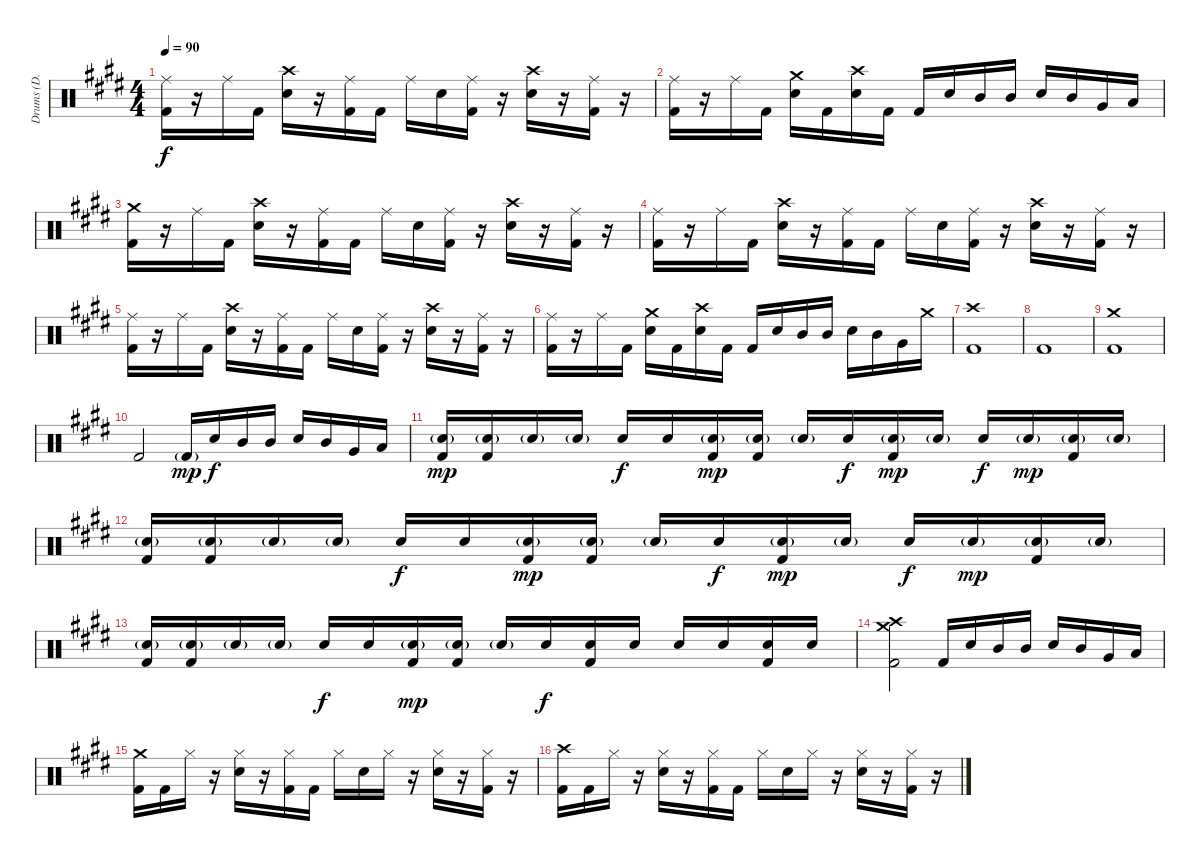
\track ("Drums (D. Adair)" "Drums (D. ") {instrument percussion}
\staff {score}
\articulation defaults
\ts (4 4)
\tempo 90
\clef neutral
\ks e
("Ride (middle)" "Kick (hit) 2").16{dy f} r.16 "Ride (middle)".16 "Kick (hit) 2".16 ("Crash high (hit)" "Snare (hit) 2").16 r.16 ("Ride (middle)" "Kick (hit) 2").16 "Kick (hit) 2".16 "Ride (middle)".16 "Snare (hit) 2".16 ("Ride (middle)" "Kick (hit) 2").16 r.16 ("Crash high (hit)" "Snare (hit) 2").16 r.16 ("Ride (middle)" "Kick (hit) 2").16 r.16 |
("Ride (middle)" "Kick (hit) 2").16 r.16 "Ride (middle)".16 "Kick (hit) 2".16 ("Crash medium (hit)" "Snare (hit) 2").16 "Kick (hit) 2".16 ("Crash high (hit)" "Snare (hit) 2").16 "Kick (hit) 2".16 "Kick (hit) 2".16 "Snare (hit) 2".16 "Mid Tom (hit)".16 "Mid Tom (hit)".16 "Snare (hit) 2".16 "Mid Tom (hit)".16 "Very Low Tom (hit)".16 "Low Floor Tom (hit)".16 |
("Crash medium (hit)" "Kick (hit) 2").16 r.16 "Ride (middle)".16 "Kick (hit) 2".16 ("Crash high (hit)" "Snare (hit) 2").16 r.16 ("Ride (middle)" "Kick (hit) 2").16 "Kick (hit) 2".16 "Ride (middle)".16 "Snare (hit) 2".16 ("Ride (middle)" "Kick (hit) 2").16 r.16 ("Crash high (hit)" "Snare (hit) 2").16 r.16 ("Ride (middle)" "Kick (hit) 2").16 r.16 |
("Ride (middle)" "Kick (hit) 2").16 r.16 "Ride (middle)".16 "Kick (hit) 2".16 ("Crash high (hit)" "Snare (hit) 2").16 r.16 ("Ride (middle)" "Kick (hit) 2").16 "Kick (hit) 2".16 "Ride (middle)".16 "Snare (hit) 2".16 ("Ride (middle)" "Kick (hit) 2").16 r.16 ("Crash high (hit)" "Snare (hit) 2").16 r.16 ("Ride (middle)" "Kick (hit) 2").16 r.16 |
("Ride (middle)" "Kick (hit) 2").16 r.16 "Ride (middle)".16 "Kick (hit) 2".16 ("Crash high (hit)" "Snare (hit) 2").16 r.16 ("Ride (middle)" "Kick (hit) 2").16 "Kick (hit) 2".16 "Ride (middle)".16 "Snare (hit) 2".16 ("Ride (middle)" "Kick (hit) 2").16 r.16 ("Crash high (hit)" "Snare (hit) 2").16 r.16 ("Ride (middle)" "Kick (hit) 2").16 r.16 |
("Ride (middle)" "Kick (hit) 2").16 r.16 "Ride (middle)".16 "Kick (hit) 2".16 ("Crash medium (hit)" "Snare (hit) 2").16 "Kick (hit) 2".16 ("Crash high (hit)" "Snare (hit) 2").16 "Kick (hit) 2".16 "Kick (hit) 2".16 "Snare (hit) 2".16 "Mid Tom (hit)".16 "Mid Tom (hit)".16 "Snare (hit) 2".16 "Mid Tom (hit)".16 "Very Low Tom (hit)".16 "Crash medium (hit)".16 |
("Crash high (hit)" "Kick (hit) 2").1 |
"Kick (hit) 2".1 |
("Crash medium (hit)" "Kick (hit) 2").1 |
"Kick (hit) 2".2 "Kick (hit) 2"{g}.16{dy mp} "Snare (hit) 2".16{dy f} "Mid Tom (hit)".16 "Mid Tom (hit)".16 "Snare (hit) 2".16 "Mid Tom (hit)".16 "Very Low Tom (hit)".16 "Low Floor Tom (hit)".16 |
("Snare (hit) 2"{g} "Kick (hit) 2").16{dy mp} ("Snare (hit) 2"{g} "Kick (hit) 2").16 "Snare (hit) 2"{g}.16 "Snare (hit) 2"{g}.16 "Snare (hit) 2".16{dy f} "Snare (hit) 2".16 ("Snare (hit) 2"{g} "Kick (hit) 2").16{dy mp} ("Snare (hit) 2"{g} "Kick (hit) 2").16 "Snare (hit) 2"{g}.16 "Snare (hit) 2".16{dy f} ("Snare (hit) 2"{g} "Kick (hit) 2").16{dy mp} "Snare (hit) 2"{g}.16 "Snare (hit) 2".16{dy f} "Snare (hit) 2"{g}.16{dy mp} ("Snare (hit) 2"{g} "Kick (hit) 2").16 "Snare (hit) 2"{g}.16 |
("Snare (hit) 2"{g} "Kick (hit) 2").16 ("Snare (hit) 2"{g} "Kick (hit) 2").16 "Snare (hit) 2"{g}.16 "Snare (hit) 2"{g}.16 "Snare (hit) 2".16{dy f} "Snare (hit) 2".16 ("Snare (hit) 2"{g} "Kick (hit) 2").16{dy mp} ("Snare (hit) 2"{g} "Kick (hit) 2").16 "Snare (hit) 2"{g}.16 "Snare (hit) 2".16{dy f} ("Snare (hit) 2"{g} "Kick (hit) 2").16{dy mp} "Snare (hit) 2"{g}.16 "Snare (hit) 2".16{dy f} "Snare (hit) 2"{g}.16{dy mp} ("Snare (hit) 2"{g} "Kick (hit) 2").16 "Snare (hit) 2"{g}.16 |
("Snare (hit) 2"{g} "Kick (hit) 2").16 ("Snare (hit) 2"{g} "Kick (hit) 2").16 "Snare (hit) 2"{g}.16 "Snare (hit) 2"{g}.16 "Snare (hit) 2".16{dy f} "Snare (hit) 2".16 ("Snare (hit) 2"{g} "Kick (hit) 2").16{dy mp} ("Snare (hit) 2"{g} "Kick (hit) 2").16 "Snare (hit) 2"{g}.16 "Snare (hit) 2".16{dy f} ("Snare (hit) 2" "Kick (hit) 2").16 "Snare (hit) 2".16 "Snare (hit) 2".16 "Snare (hit) 2".16 ("Snare (hit) 2" "Kick (hit) 2").16 "Snare (hit) 2".16 |
("Crash high (hit)" "Crash medium (hit)" "Kick (hit) 2").2 "Kick (hit) 2".16 "Snare (hit) 2".16 "Mid Tom (hit)".16 "Mid Tom (hit)".16 "Snare (hit) 2".16 "Mid Tom (hit)".16 "Very Low Tom (hit)".16 "Low Floor Tom (hit)".16 |
("Crash medium (hit)" "Kick (hit) 2").16 "Kick (hit) 2".16 "Hi-Hat (closed)".16 r.16 ("Hi-Hat (closed)" "Snare (hit) 2").16 r.16 ("Hi-Hat (closed)" "Kick (hit) 2").16 "Kick (hit) 2".16 "Hi-Hat (closed)".16 "Snare (hit) 2".16 "Hi-Hat (closed)".16 r.16 ("Hi-Hat (closed)" "Snare (hit) 2").16 r.16 ("Hi-Hat (closed)" "Kick (hit) 2").16 r.16 |
("Crash high (hit)" "Kick (hit) 2").16 "Kick (hit) 2".16 "Hi-Hat (closed)".16 r.16 ("Hi-Hat (closed)" "Snare (hit) 2").16 r.16 ("Hi-Hat (closed)" "Kick (hit) 2").16 "Kick (hit) 2".16 "Hi-Hat (closed)".16 "Snare (hit) 2".16 "Hi-Hat (closed)".16 r.16 ("Hi-Hat (closed)" "Snare (hit) 2").16 r.16 ("Hi-Hat (closed)" "Kick (hit) 2").16 r.16
